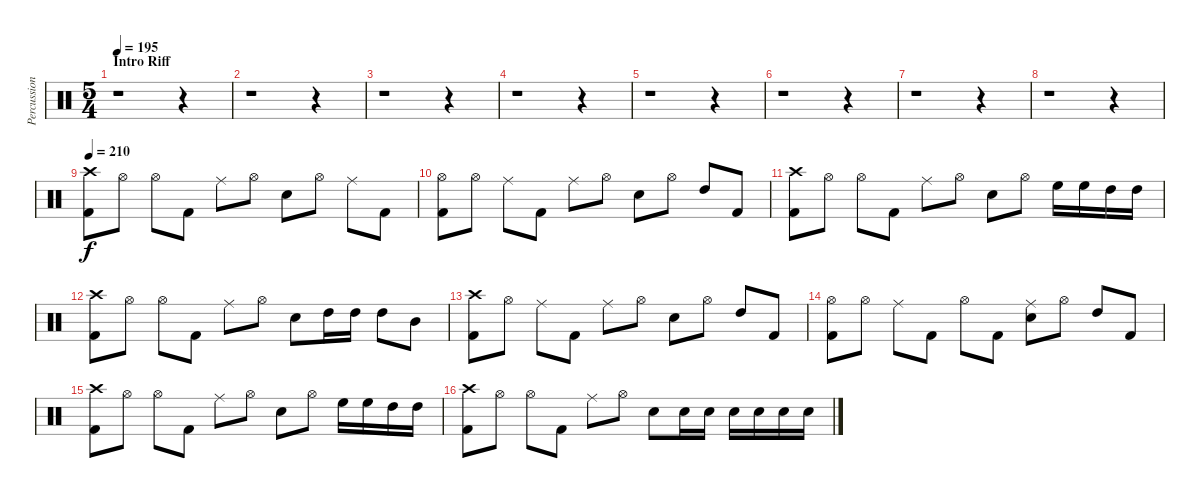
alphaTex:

\track ("Percussion" "Percussion") {instrument percussion}
\staff {score}
\articulation defaults
\ts (5 4)
\section ("" "Intro Riff")
\tempo 195
\clef neutral
\ks c
r.1{dy f} r.4 |
r.1 r.4 |
r.1 r.4 |
r.1 r.4 |
r.1 r.4 |
r.1 r.4 |
r.1 r.4 |
r.1 r.4 |
\tempo 210
("Crash high (hit)" "Kick (hit) 2").8 "Hi-Hat (open)".8 "Hi-Hat (open)".8 "Kick (hit) 2".8 "Ride (middle)".8 "Hi-Hat (open)".8 "Electric Snare (hit)".8 "Hi-Hat (open)".8 "Ride (middle)".8 "Kick (hit) 2".8 |
("Hi-Hat (open)" "Kick (hit) 2").8 "Hi-Hat (open)".8 "Ride (middle)".8 "Kick (hit) 2".8 "Ride (middle)".8 "Hi-Hat (open)".8 "Electric Snare (hit)".8 "Hi-Hat (open)".8 "High Tom (hit)".8 "Kick (hit) 2".8 |
("Crash high (hit)" "Kick (hit) 2").8 "Hi-Hat (open)".8 "Hi-Hat (open)".8 "Kick (hit) 2".8 "Ride (middle)".8 "Hi-Hat (open)".8 "Electric Snare (hit)".8 "Hi-Hat (open)".8 "High Floor Tom (hit)".16 "High Floor Tom (hit)".16 "High Tom (hit)".16 "High Tom (hit)".16 |
("Crash high (hit)" "Kick (hit) 2").8 "Hi-Hat (open)".8 "Hi-Hat (open)".8 "Kick (hit) 2".8 "Ride (middle)".8 "Hi-Hat (open)".8 "Electric Snare (hit)".8 "High Tom (hit)".16 "High Tom (hit)".16 "High Tom (hit)".8 "Mid Tom (hit)".8 |
("Crash high (hit)" "Kick (hit) 2").8 "Hi-Hat (open)".8 "Ride (middle)".8 "Kick (hit) 2".8 "Ride (middle)".8 "Hi-Hat (open)".8 "Electric Snare (hit)".8 "Hi-Hat (open)".8 "High Tom (hit)".8 "Kick (hit) 2".8 |
("Hi-Hat (open)" "Kick (hit) 2").8 "Hi-Hat (open)".8 "Ride (middle)".8 "Kick (hit) 2".8 "Hi-Hat (open)".8 "Kick (hit) 2".8 ("Ride (middle)" "Electric Snare (hit)").8 "Hi-Hat (open)".8 "High Tom (hit)".8 "Kick (hit) 2".8 |
("Crash high (hit)" "Kick (hit) 2").8 "Hi-Hat (open)".8 "Hi-Hat (open)".8 "Kick (hit) 2".8 "Ride (middle)".8 "Hi-Hat (open)".8 "Electric Snare (hit)".8 "Hi-Hat (open)".8 "High Floor Tom (hit)".16 "High Floor Tom (hit)".16 "High Tom (hit)".16 "High Tom (hit)".16 |
("Crash high (hit)" "Kick (hit) 2").8 "Hi-Hat (open)".8 "Hi-Hat (open)".8 "Kick (hit) 2".8 "Ride (middle)".8 "Hi-Hat (open)".8 "Electric Snare (hit)".8 "Electric Snare (hit)".16 "Electric Snare (hit)".16 "Electric Snare (hit)".16 "Electric Snare (hit)".16 "Electric Snare (hit)".16 "Electric Snare (hit)".16
